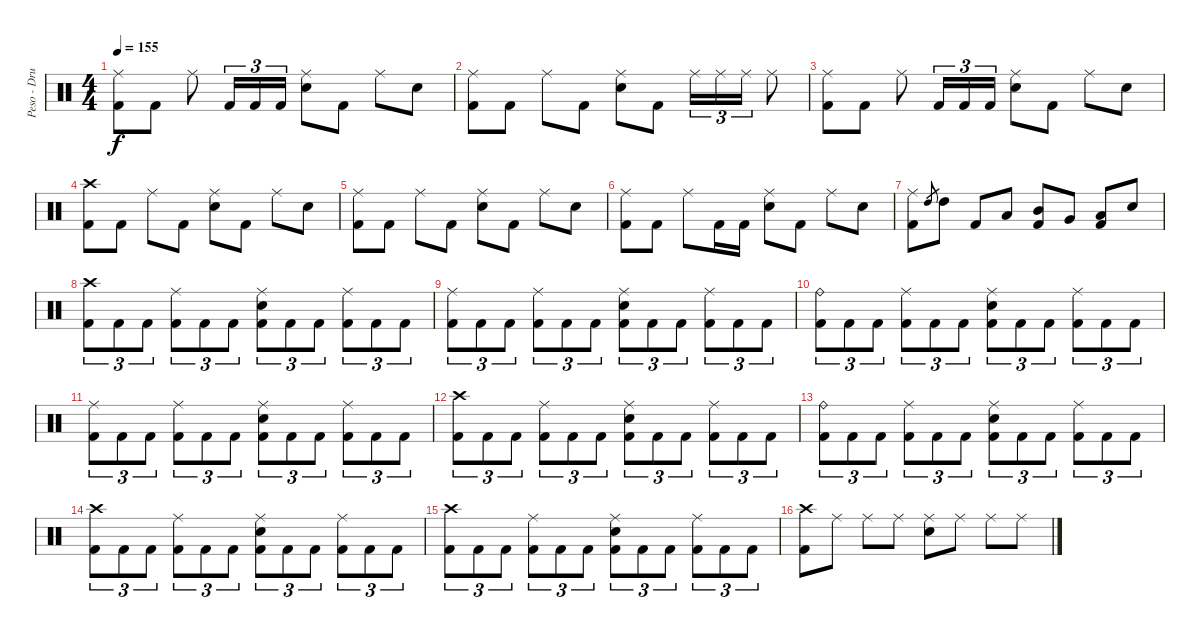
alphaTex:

\track ("Peso - Drums" "Peso - Dru") {instrument percussion}
\staff {score}
\articulation defaults
\ts (4 4)
\tempo 155
\clef neutral
\ks c
("Ride (middle)" "Kick (hit) 2").8{dy f} "Kick (hit) 2".8 "Ride (middle)".8 "Kick (hit) 2".16{tu (3 2)} "Kick (hit) 2".16{tu (3 2)} "Kick (hit) 2".16{tu (3 2)} ("Ride (middle)" "Electric Snare (hit)").8 "Kick (hit) 2".8 "Ride (middle)".8 "Electric Snare (hit)".8 |
("Ride (middle)" "Kick (hit) 2").8 "Kick (hit) 2".8 "Ride (middle)".8 "Kick (hit) 2".8 ("Ride (middle)" "Electric Snare (hit)").8 "Kick (hit) 2".8 "Ride (middle)".16{tu (3 2)} "Ride (middle)".16{tu (3 2)} "Ride (middle)".16{tu (3 2)} "Ride (middle)".8 |
("Ride (middle)" "Kick (hit) 2").8 "Kick (hit) 2".8 "Ride (middle)".8 "Kick (hit) 2".16{tu (3 2)} "Kick (hit) 2".16{tu (3 2)} "Kick (hit) 2".16{tu (3 2)} ("Ride (middle)" "Electric Snare (hit)").8 "Kick (hit) 2".8 "Ride (middle)".8 "Electric Snare (hit)".8 |
("Crash high (hit)" "Kick (hit) 2").8 "Kick (hit) 2".8 "Ride (middle)".8 "Kick (hit) 2".8 ("Ride (middle)" "Electric Snare (hit)").8 "Kick (hit) 2".8 "Ride (middle)".8 "Electric Snare (hit)".8 |
("Ride (middle)" "Kick (hit) 2").8 "Kick (hit) 2".8 "Ride (middle)".8 "Kick (hit) 2".8 ("Ride (middle)" "Electric Snare (hit)").8 "Kick (hit) 2".8 "Ride (middle)".8 "Electric Snare (hit)".8 |
("Ride (middle)" "Kick (hit) 2").8 "Kick (hit) 2".8 "Ride (middle)".8 "Kick (hit) 2".16 "Kick (hit) 2".16 ("Ride (middle)" "Electric Snare (hit)").8 "Kick (hit) 2".8 "Ride (middle)".8 "Electric Snare (hit)".8 |
("Ride (middle)" "Kick (hit) 2").8 "High Tom (hit)".8{gr} "High Tom (hit)".8 "Kick (hit) 2".8 "Low Tom (hit)".8 ("Mid Tom (hit)" "Kick (hit) 2").8 "Very Low Tom (hit)".8 ("Low Floor Tom (hit)" "Kick (hit) 2").8 "Electric Snare (hit)".8 |
("Crash high (hit)" "Kick (hit) 2").8{tu (3 2)} "Kick (hit) 2".8{tu (3 2)} "Kick (hit) 2".8{tu (3 2)} ("Ride (middle)" "Kick (hit) 2").8{tu (3 2)} "Kick (hit) 2".8{tu (3 2)} "Kick (hit) 2".8{tu (3 2)} ("Ride (middle)" "Electric Snare (hit)" "Kick (hit) 2").8{tu (3 2)} "Kick (hit) 2".8{tu (3 2)} "Kick (hit) 2".8{tu (3 2)} ("Ride (middle)" "Kick (hit) 2").8{tu (3 2)} "Kick (hit) 2".8{tu (3 2)} "Kick (hit) 2".8{tu (3 2)} |
("Ride (middle)" "Kick (hit) 2").8{tu (3 2)} "Kick (hit) 2".8{tu (3 2)} "Kick (hit) 2".8{tu (3 2)} ("Ride (middle)" "Kick (hit) 2").8{tu (3 2)} "Kick (hit) 2".8{tu (3 2)} "Kick (hit) 2".8{tu (3 2)} ("Ride (middle)" "Electric Snare (hit)" "Kick (hit) 2").8{tu (3 2)} "Kick (hit) 2".8{tu (3 2)} "Kick (hit) 2".8{tu (3 2)} ("Ride (middle)" "Kick (hit) 2").8{tu (3 2)} "Kick (hit) 2".8{tu (3 2)} "Kick (hit) 2".8{tu (3 2)} |
("Ride (bell)" "Kick (hit) 2").8{tu (3 2)} "Kick (hit) 2".8{tu (3 2)} "Kick (hit) 2".8{tu (3 2)} ("Ride (middle)" "Kick (hit) 2").8{tu (3 2)} "Kick (hit) 2".8{tu (3 2)} "Kick (hit) 2".8{tu (3 2)} ("Ride (middle)" "Electric Snare (hit)" "Kick (hit) 2").8{tu (3 2)} "Kick (hit) 2".8{tu (3 2)} "Kick (hit) 2".8{tu (3 2)} ("Ride (middle)" "Kick (hit) 2").8{tu (3 2)} "Kick (hit) 2".8{tu (3 2)} "Kick (hit) 2".8{tu (3 2)} |
("Ride (middle)" "Kick (hit) 2").8{tu (3 2)} "Kick (hit) 2".8{tu (3 2)} "Kick (hit) 2".8{tu (3 2)} ("Ride (middle)" "Kick (hit) 2").8{tu (3 2)} "Kick (hit) 2".8{tu (3 2)} "Kick (hit) 2".8{tu (3 2)} ("Ride (middle)" "Electric Snare (hit)" "Kick (hit) 2").8{tu (3 2)} "Kick (hit) 2".8{tu (3 2)} "Kick (hit) 2".8{tu (3 2)} ("Ride (middle)" "Kick (hit) 2").8{tu (3 2)} "Kick (hit) 2".8{tu (3 2)} "Kick (hit) 2".8{tu (3 2)} |
("Crash high (hit)" "Kick (hit) 2").8{tu (3 2)} "Kick (hit) 2".8{tu (3 2)} "Kick (hit) 2".8{tu (3 2)} ("Ride (middle)" "Kick (hit) 2").8{tu (3 2)} "Kick (hit) 2".8{tu (3 2)} "Kick (hit) 2".8{tu (3 2)} ("Ride (middle)" "Electric Snare (hit)" "Kick (hit) 2").8{tu (3 2)} "Kick (hit) 2".8{tu (3 2)} "Kick (hit) 2".8{tu (3 2)} ("Ride (middle)" "Kick (hit) 2").8{tu (3 2)} "Kick (hit) 2".8{tu (3 2)} "Kick (hit) 2".8{tu (3 2)} |
("Ride (bell)" "Kick (hit) 2").8{tu (3 2)} "Kick (hit) 2".8{tu (3 2)} "Kick (hit) 2".8{tu (3 2)} ("Ride (middle)" "Kick (hit) 2").8{tu (3 2)} "Kick (hit) 2".8{tu (3 2)} "Kick (hit) 2".8{tu (3 2)} ("Ride (middle)" "Electric Snare (hit)" "Kick (hit) 2").8{tu (3 2)} "Kick (hit) 2".8{tu (3 2)} "Kick (hit) 2".8{tu (3 2)} ("Ride (middle)" "Kick (hit) 2").8{tu (3 2)} "Kick (hit) 2".8{tu (3 2)} "Kick (hit) 2".8{tu (3 2)} |
("Crash high (hit)" "Kick (hit) 2").8{tu (3 2)} "Kick (hit) 2".8{tu (3 2)} "Kick (hit) 2".8{tu (3 2)} ("Ride (middle)" "Kick (hit) 2").8{tu (3 2)} "Kick (hit) 2".8{tu (3 2)} "Kick (hit) 2".8{tu (3 2)} ("Ride (middle)" "Electric Snare (hit)" "Kick (hit) 2").8{tu (3 2)} "Kick (hit) 2".8{tu (3 2)} "Kick (hit) 2".8{tu (3 2)} ("Ride (middle)" "Kick (hit) 2").8{tu (3 2)} "Kick (hit) 2".8{tu (3 2)} "Kick (hit) 2".8{tu (3 2)} |
("Crash high (hit)" "Kick (hit) 2").8{tu (3 2)} "Kick (hit) 2".8{tu (3 2)} "Kick (hit) 2".8{tu (3 2)} ("Ride (middle)" "Kick (hit) 2").8{tu (3 2)} "Kick (hit) 2".8{tu (3 2)} "Kick (hit) 2".8{tu (3 2)} ("Ride (middle)" "Electric Snare (hit)" "Kick (hit) 2").8{tu (3 2)} "Kick (hit) 2".8{tu (3 2)} "Kick (hit) 2".8{tu (3 2)} ("Ride (middle)" "Kick (hit) 2").8{tu (3 2)} "Kick (hit) 2".8{tu (3 2)} "Kick (hit) 2".8{tu (3 2)} |
("Crash high (hit)" "Kick (hit) 2").8 "Ride (middle)".8 "Ride (middle)".8 "Ride (middle)".8 ("Ride (middle)" "Electric Snare (hit)").8 "Ride (middle)".8 "Ride (middle)".8 "Ride (middle)".8
